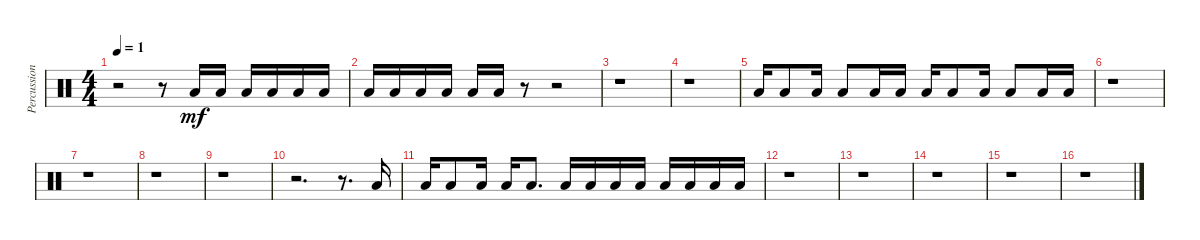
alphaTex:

\track ("Percussion 2" "Percussion") {instrument percussion}
\staff {score}
\articulation defaults
\ts (4 4)
\tempo 1
\clef neutral
\ks c
r.2{dy mf} r.8 "Low Tom (hit)".16 "Low Tom (hit)".16 "Low Tom (hit)".16 "Low Tom (hit)".16 "Low Tom (hit)".16 "Low Tom (hit)".16 |
"Low Tom (hit)".16 "Low Tom (hit)".16 "Low Tom (hit)".16 "Low Tom (hit)".16 "Low Tom (hit)".16 "Low Tom (hit)".16 r.8 r.2 |
r.1 |
r.1 |
"Low Tom (hit)".16 "Low Tom (hit)".8 "Low Tom (hit)".16 "Low Tom (hit)".8 "Low Tom (hit)".16 "Low Tom (hit)".16 "Low Tom (hit)".16 "Low Tom (hit)".8 "Low Tom (hit)".16 "Low Tom (hit)".8 "Low Tom (hit)".16 "Low Tom (hit)".16 |
r.1 |
r.1 |
r.1 |
r.1 |
r.2{d} r.8{d} "Low Tom (hit)".16 |
"Low Tom (hit)".16 "Low Tom (hit)".8 "Low Tom (hit)".16 "Low Tom (hit)".16 "Low Tom (hit)".8{d} "Low Tom (hit)".16 "Low Tom (hit)".16 "Low Tom (hit)".16 "Low Tom (hit)".16 "Low Tom (hit)".16 "Low Tom (hit)".16 "Low Tom (hit)".16 "Low Tom (hit)".16 |
r.1 |
r.1 |
r.1 |
r.1 |
r.1
